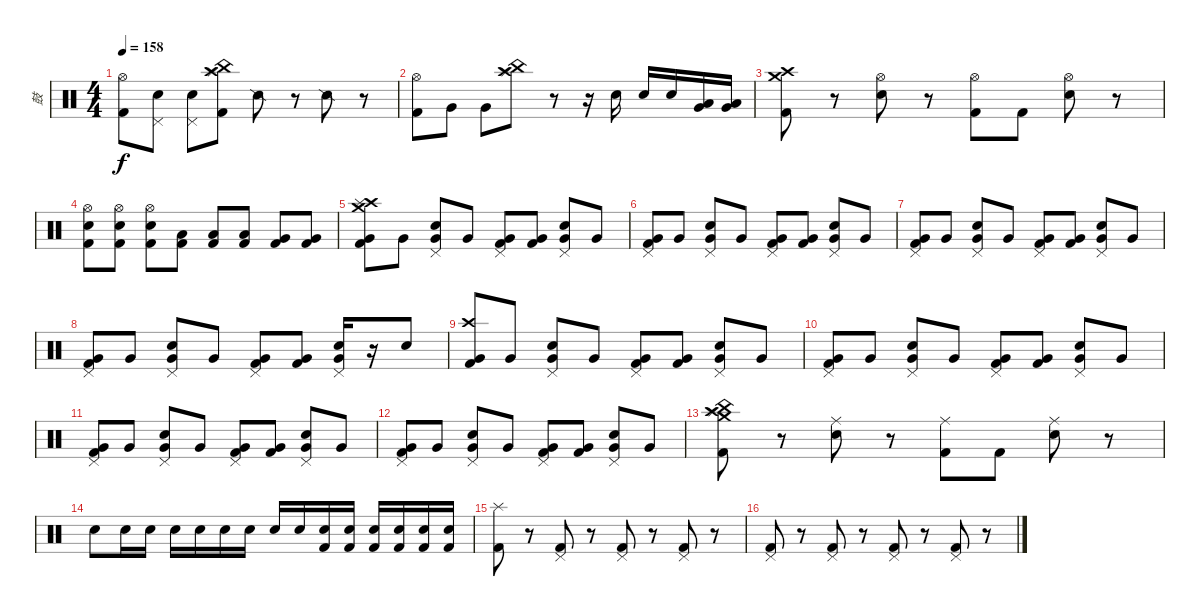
\track ("鼓" "鼓") {instrument percussion}
\staff {score}
\articulation defaults
\ts (4 4)
\tempo 158
\clef neutral
\ks c
("Hi-Hat (open)" "Kick (hit) 2").8{dy f} ("Electric Snare (hit)" "Pedal Hi-Hat (hit)").8 ("Electric Snare (hit)" "Pedal Hi-Hat (hit)").8 ("Crash high (hit)" "Splash (hit)" "China (hit)" "Kick (hit) 2").8 "Snare (side stick) 2".8 r.8 "Snare (side stick) 2".8 r.8 |
("Hi-Hat (open)" "Kick (hit) 2").8 "Very Low Tom (hit)".8 "Very Low Tom (hit)".8 ("Crash high (hit)" "Splash (hit)" "China (hit)").8 r.8 r.16 "Electric Snare (hit)".16 "Electric Snare (hit)".16 "Electric Snare (hit)".16 ("Low Tom (hit)" "Very Low Tom (hit)").16 ("Low Floor Tom (hit)" "Very Low Tom (hit)").16 |
("Crash high (hit)" "Crash medium (hit)" "Kick (hit) 2").8 r.8 ("Hi-Hat (open)" "Electric Snare (hit)").8 r.8 ("Hi-Hat (open)" "Kick (hit) 2").8 "Kick (hit) 2".8 ("Hi-Hat (open)" "Electric Snare (hit)").8 r.8 |
("Hi-Hat (open)" "Electric Snare (hit)" "Kick (hit) 2").8 ("Hi-Hat (open)" "Electric Snare (hit)" "Kick (hit) 2").8 ("Hi-Hat (open)" "Electric Snare (hit)" "Kick (hit) 2").8 ("Low Tom (hit)" "Kick (hit) 2").8 ("Low Tom (hit)" "Kick (hit) 2").8 ("Low Tom (hit)" "Kick (hit) 2").8 ("Very Low Tom (hit)" "Kick (hit) 2").8 ("Very Low Tom (hit)" "Kick (hit) 2").8 |
("Crash high (hit)" "Splash (hit)" "Crash medium (hit)" "Kick (hit) 2" "Very Low Tom (hit)").8 "Very Low Tom (hit)".8 ("Pedal Hi-Hat (hit)" "Electric Snare (hit)" "Very Low Tom (hit)").8 "Very Low Tom (hit)".8 ("Pedal Hi-Hat (hit)" "Kick (hit) 2" "Very Low Tom (hit)").8 ("Kick (hit) 2" "Very Low Tom (hit)").8 ("Pedal Hi-Hat (hit)" "Electric Snare (hit)" "Very Low Tom (hit)").8 "Very Low Tom (hit)".8 |
("Pedal Hi-Hat (hit)" "Kick (hit) 2" "Very Low Tom (hit)").8 "Very Low Tom (hit)".8 ("Pedal Hi-Hat (hit)" "Electric Snare (hit)" "Very Low Tom (hit)").8 "Very Low Tom (hit)".8 ("Pedal Hi-Hat (hit)" "Kick (hit) 2" "Very Low Tom (hit)").8 ("Kick (hit) 2" "Very Low Tom (hit)").8 ("Pedal Hi-Hat (hit)" "Electric Snare (hit)" "Very Low Tom (hit)").8 "Very Low Tom (hit)".8 |
("Pedal Hi-Hat (hit)" "Kick (hit) 2" "Very Low Tom (hit)").8 "Very Low Tom (hit)".8 ("Pedal Hi-Hat (hit)" "Electric Snare (hit)" "Very Low Tom (hit)").8 "Very Low Tom (hit)".8 ("Pedal Hi-Hat (hit)" "Kick (hit) 2" "Very Low Tom (hit)").8 ("Kick (hit) 2" "Very Low Tom (hit)").8 ("Pedal Hi-Hat (hit)" "Electric Snare (hit)" "Very Low Tom (hit)").8 "Very Low Tom (hit)".8 |
("Pedal Hi-Hat (hit)" "Kick (hit) 2" "Very Low Tom (hit)").8 "Very Low Tom (hit)".8 ("Pedal Hi-Hat (hit)" "Electric Snare (hit)" "Very Low Tom (hit)").8 "Very Low Tom (hit)".8 ("Pedal Hi-Hat (hit)" "Kick (hit) 2" "Very Low Tom (hit)").8 ("Kick (hit) 2" "Very Low Tom (hit)").8 ("Pedal Hi-Hat (hit)" "Electric Snare (hit)" "Very Low Tom (hit)").16 r.16 "Electric Snare (hit)".8 |
("Crash high (hit)" "Kick (hit) 2" "Very Low Tom (hit)").8 "Very Low Tom (hit)".8 ("Pedal Hi-Hat (hit)" "Electric Snare (hit)" "Very Low Tom (hit)").8 "Very Low Tom (hit)".8 ("Pedal Hi-Hat (hit)" "Kick (hit) 2" "Very Low Tom (hit)").8 ("Kick (hit) 2" "Very Low Tom (hit)").8 ("Pedal Hi-Hat (hit)" "Electric Snare (hit)" "Very Low Tom (hit)").8 "Very Low Tom (hit)".8 |
("Pedal Hi-Hat (hit)" "Kick (hit) 2" "Very Low Tom (hit)").8 "Very Low Tom (hit)".8 ("Pedal Hi-Hat (hit)" "Electric Snare (hit)" "Very Low Tom (hit)").8 "Very Low Tom (hit)".8 ("Pedal Hi-Hat (hit)" "Kick (hit) 2" "Very Low Tom (hit)").8 ("Kick (hit) 2" "Very Low Tom (hit)").8 ("Pedal Hi-Hat (hit)" "Electric Snare (hit)" "Very Low Tom (hit)").8 "Very Low Tom (hit)".8 |
("Pedal Hi-Hat (hit)" "Kick (hit) 2" "Very Low Tom (hit)").8 "Very Low Tom (hit)".8 ("Pedal Hi-Hat (hit)" "Electric Snare (hit)" "Very Low Tom (hit)").8 "Very Low Tom (hit)".8 ("Pedal Hi-Hat (hit)" "Kick (hit) 2" "Very Low Tom (hit)").8 ("Kick (hit) 2" "Very Low Tom (hit)").8 ("Pedal Hi-Hat (hit)" "Electric Snare (hit)" "Very Low Tom (hit)").8 "Very Low Tom (hit)".8 |
("Pedal Hi-Hat (hit)" "Kick (hit) 2" "Very Low Tom (hit)").8 "Very Low Tom (hit)".8 ("Pedal Hi-Hat (hit)" "Electric Snare (hit)" "Very Low Tom (hit)").8 "Very Low Tom (hit)".8 ("Pedal Hi-Hat (hit)" "Kick (hit) 2" "Very Low Tom (hit)").8 ("Kick (hit) 2" "Very Low Tom (hit)").8 ("Pedal Hi-Hat (hit)" "Electric Snare (hit)" "Very Low Tom (hit)").8 "Very Low Tom (hit)".8 |
("Crash high (hit)" "Crash medium (hit)" "Splash (hit)" "China (hit)" "Kick (hit) 2").8 r.8 ("Ride (middle)" "Electric Snare (hit)").8 r.8 ("Ride (middle)" "Kick (hit) 2").8 "Kick (hit) 2".8 ("Ride (middle)" "Electric Snare (hit)").8 r.8 |
"Electric Snare (hit)".8 "Electric Snare (hit)".16 "Electric Snare (hit)".16 "Electric Snare (hit)".16 "Electric Snare (hit)".16 "Electric Snare (hit)".16 "Electric Snare (hit)".16 "Electric Snare (hit)".16 "Electric Snare (hit)".16 ("Electric Snare (hit)" "Kick (hit) 2").16 ("Electric Snare (hit)" "Kick (hit) 2").16 ("Electric Snare (hit)" "Kick (hit) 2").16 ("Electric Snare (hit)" "Kick (hit) 2").16 ("Electric Snare (hit)" "Kick (hit) 2").16 ("Electric Snare (hit)" "Kick (hit) 2").16 |
("Splash (hit)" "Kick (hit) 2").8 r.8 ("Pedal Hi-Hat (hit)" "Kick (hit) 2").8 r.8 ("Pedal Hi-Hat (hit)" "Kick (hit) 2").8 r.8 ("Pedal Hi-Hat (hit)" "Kick (hit) 2").8 r.8 |
("Pedal Hi-Hat (hit)" "Kick (hit) 2").8 r.8 ("Pedal Hi-Hat (hit)" "Kick (hit) 2").8 r.8 ("Pedal Hi-Hat (hit)" "Kick (hit) 2").8 r.8 ("Pedal Hi-Hat (hit)" "Kick (hit) 2").8 r.8
